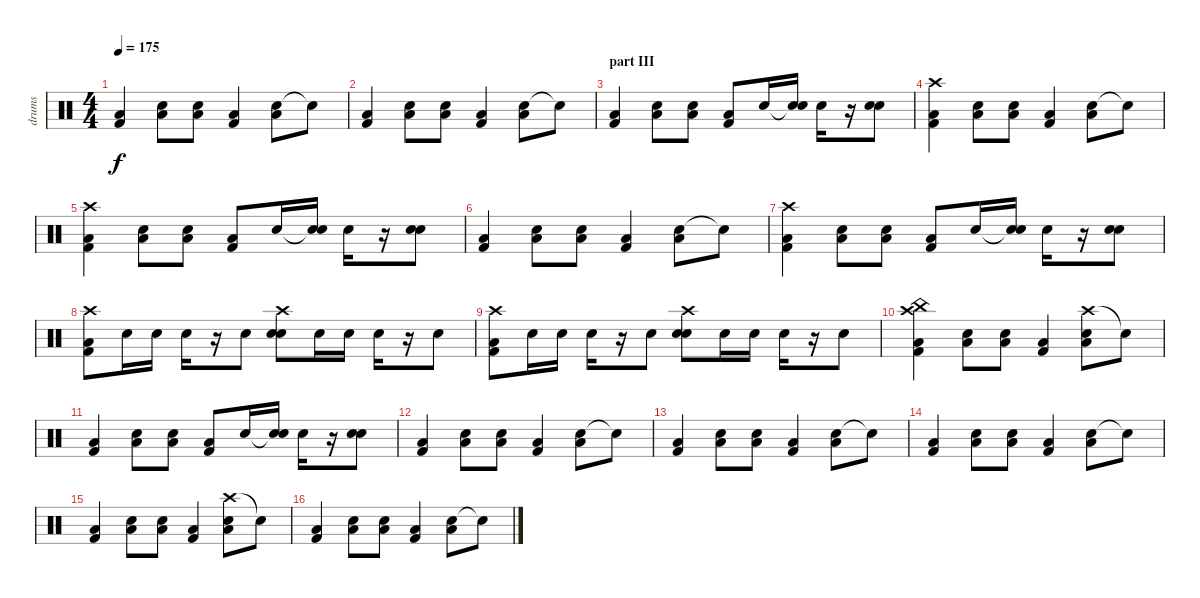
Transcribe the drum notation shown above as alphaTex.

\track ("drums" "drums") {instrument percussion}
\staff {score}
\articulation defaults
\ts (4 4)
\tempo 175
\clef neutral
\ks c
("Kick (hit) 2" "Low Floor Tom (hit)").4{dy f} ("Snare (hit) 2" "Low Floor Tom (hit)").8 ("Snare (hit) 2" "Low Floor Tom (hit)").8 ("Kick (hit) 2" "Low Floor Tom (hit)").4 ("Snare (hit) 2" "Low Floor Tom (hit)").8 "Snare (hit)"{t}.8 |
("Kick (hit) 2" "Low Floor Tom (hit)").4 ("Snare (hit) 2" "Low Floor Tom (hit)").8 ("Snare (hit) 2" "Low Floor Tom (hit)").8 ("Kick (hit) 2" "Low Floor Tom (hit)").4 ("Snare (hit) 2" "Low Floor Tom (hit)").8 "Snare (hit)"{t}.8 |
\section ("" "part III")
("Kick (hit) 2" "Low Floor Tom (hit)").4 ("Snare (hit) 2" "Low Floor Tom (hit)").8 ("Snare (hit) 2" "Low Floor Tom (hit)").8 ("Kick (hit) 2" "Low Floor Tom (hit)").8 "Electric Snare (hit)".16 ("Snare (hit)"{t} "Electric Snare (hit)").16 "Electric Snare (hit)".16 r.16 ("Electric Snare (hit)" "Snare (hit) 2").8 |
("Crash high (hit)" "Kick (hit) 2" "Low Floor Tom (hit)").4 ("Snare (hit) 2" "Low Floor Tom (hit)").8 ("Snare (hit) 2" "Low Floor Tom (hit)").8 ("Kick (hit) 2" "Low Floor Tom (hit)").4 ("Snare (hit) 2" "Low Floor Tom (hit)").8 "Snare (hit)"{t}.8 |
("Crash high (hit)" "Kick (hit) 2" "Low Floor Tom (hit)").4 ("Snare (hit) 2" "Low Floor Tom (hit)").8 ("Snare (hit) 2" "Low Floor Tom (hit)").8 ("Kick (hit) 2" "Low Floor Tom (hit)").8 "Electric Snare (hit)".16 ("Snare (hit)"{t} "Electric Snare (hit)").16 "Electric Snare (hit)".16 r.16 ("Electric Snare (hit)" "Snare (hit) 2").8 |
("Kick (hit) 2" "Low Floor Tom (hit)").4 ("Snare (hit) 2" "Low Floor Tom (hit)").8 ("Snare (hit) 2" "Low Floor Tom (hit)").8 ("Kick (hit) 2" "Low Floor Tom (hit)").4 ("Snare (hit) 2" "Low Floor Tom (hit)").8 "Snare (hit)"{t}.8 |
("Crash high (hit)" "Kick (hit) 2" "Low Floor Tom (hit)").4 ("Snare (hit) 2" "Low Floor Tom (hit)").8 ("Snare (hit) 2" "Low Floor Tom (hit)").8 ("Kick (hit) 2" "Low Floor Tom (hit)").8 "Electric Snare (hit)".16 ("Snare (hit)"{t} "Electric Snare (hit)").16 "Electric Snare (hit)".16 r.16 ("Electric Snare (hit)" "Snare (hit) 2").8 |
("Crash high (hit)" "Kick (hit) 2" "Low Floor Tom (hit)").8 "Electric Snare (hit)".16 "Electric Snare (hit)".16 "Electric Snare (hit)".16 r.16 "Electric Snare (hit)".8 ("Crash high (hit)" "Snare (hit) 2" "Electric Snare (hit)").8 "Electric Snare (hit)".16 "Electric Snare (hit)".16 "Electric Snare (hit)".16 r.16 "Electric Snare (hit)".8 |
("Crash high (hit)" "Kick (hit) 2" "Low Floor Tom (hit)").8 "Electric Snare (hit)".16 "Electric Snare (hit)".16 "Electric Snare (hit)".16 r.16 "Electric Snare (hit)".8 ("Crash high (hit)" "Snare (hit) 2" "Electric Snare (hit)").8 "Electric Snare (hit)".16 "Electric Snare (hit)".16 "Electric Snare (hit)".16 r.16 "Electric Snare (hit)".8 |
("China (hit)" "Crash high (hit)" "Kick (hit) 2" "Low Floor Tom (hit)").4 ("Snare (hit) 2" "Low Floor Tom (hit)").8 ("Snare (hit) 2" "Low Floor Tom (hit)").8 ("Kick (hit) 2" "Low Floor Tom (hit)").4 ("Crash high (hit)" "Snare (hit) 2" "Low Floor Tom (hit)").8 "Snare (hit)"{t}.8 |
("Kick (hit) 2" "Low Floor Tom (hit)").4 ("Snare (hit) 2" "Low Floor Tom (hit)").8 ("Snare (hit) 2" "Low Floor Tom (hit)").8 ("Kick (hit) 2" "Low Floor Tom (hit)").8 "Electric Snare (hit)".16 ("Snare (hit)"{t} "Electric Snare (hit)").16 "Electric Snare (hit)".16 r.16 ("Electric Snare (hit)" "Snare (hit) 2").8 |
("Kick (hit) 2" "Low Floor Tom (hit)").4 ("Snare (hit) 2" "Low Floor Tom (hit)").8 ("Snare (hit) 2" "Low Floor Tom (hit)").8 ("Kick (hit) 2" "Low Floor Tom (hit)").4 ("Snare (hit) 2" "Low Floor Tom (hit)").8 "Snare (hit)"{t}.8 |
("Kick (hit) 2" "Low Floor Tom (hit)").4 ("Snare (hit) 2" "Low Floor Tom (hit)").8 ("Snare (hit) 2" "Low Floor Tom (hit)").8 ("Kick (hit) 2" "Low Floor Tom (hit)").4 ("Snare (hit) 2" "Low Floor Tom (hit)").8 "Snare (hit)"{t}.8 |
("Kick (hit) 2" "Low Floor Tom (hit)").4 ("Snare (hit) 2" "Low Floor Tom (hit)").8 ("Snare (hit) 2" "Low Floor Tom (hit)").8 ("Kick (hit) 2" "Low Floor Tom (hit)").4 ("Snare (hit) 2" "Low Floor Tom (hit)").8 "Snare (hit)"{t}.8 |
("Kick (hit) 2" "Low Floor Tom (hit)").4 ("Snare (hit) 2" "Low Floor Tom (hit)").8 ("Snare (hit) 2" "Low Floor Tom (hit)").8 ("Kick (hit) 2" "Low Floor Tom (hit)").4 ("Crash high (hit)" "Snare (hit) 2" "Low Floor Tom (hit)").8 "Snare (hit)"{t}.8 |
("Kick (hit) 2" "Low Floor Tom (hit)").4 ("Snare (hit) 2" "Low Floor Tom (hit)").8 ("Snare (hit) 2" "Low Floor Tom (hit)").8 ("Kick (hit) 2" "Low Floor Tom (hit)").4 ("Snare (hit) 2" "Low Floor Tom (hit)").8 "Snare (hit)"{t}.8
